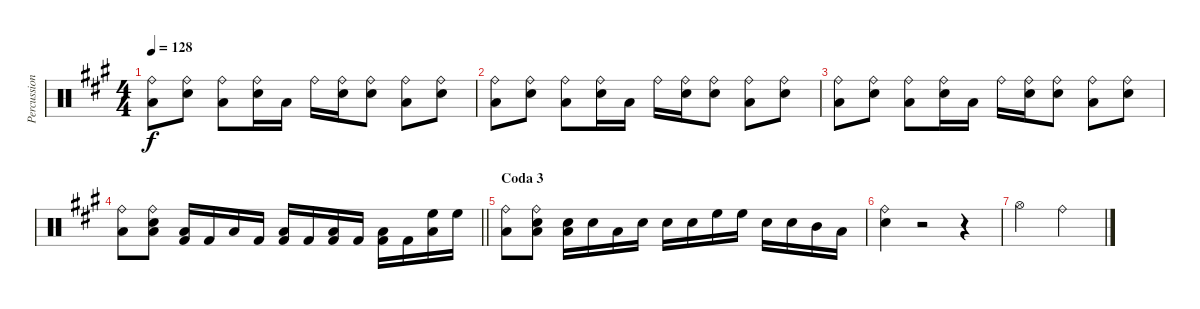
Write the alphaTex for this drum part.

\track ("Percussions" "Percussion") {instrument percussion}
\staff {score}
\articulation defaults
\ts (4 4)
\tempo 128
\clef neutral
\ks a
("Ride (bell)" "Low Floor Tom (hit)").8{dy f} ("Ride (bell)" "Snare (hit) 2").8 ("Ride (bell)" "Low Floor Tom (hit)").8 ("Ride (bell)" "Snare (hit) 2").16 "Low Floor Tom (hit)".16 "Ride (bell)".16 ("Ride (bell)" "Snare (hit) 2").16 ("Ride (bell)" "Snare (hit) 2").8 ("Ride (bell)" "Low Floor Tom (hit)").8 ("Ride (bell)" "Snare (hit) 2").8 |
("Ride (bell)" "Low Floor Tom (hit)").8 ("Ride (bell)" "Snare (hit) 2").8 ("Ride (bell)" "Low Floor Tom (hit)").8 ("Ride (bell)" "Snare (hit) 2").16 "Low Floor Tom (hit)".16 "Ride (bell)".16 ("Ride (bell)" "Snare (hit) 2").16 ("Ride (bell)" "Snare (hit) 2").8 ("Ride (bell)" "Low Floor Tom (hit)").8 ("Ride (bell)" "Snare (hit) 2").8 |
("Ride (bell)" "Low Floor Tom (hit)").8 ("Ride (bell)" "Snare (hit) 2").8 ("Ride (bell)" "Low Floor Tom (hit)").8 ("Ride (bell)" "Snare (hit) 2").16 "Low Floor Tom (hit)".16 "Ride (bell)".16 ("Ride (bell)" "Snare (hit) 2").16 ("Ride (bell)" "Snare (hit) 2").8 ("Ride (bell)" "Low Floor Tom (hit)").8 ("Ride (bell)" "Snare (hit) 2").8 |
\barLineRight lightlight
("Ride (bell)" "Low Floor Tom (hit)").8 ("Ride (bell)" "Snare (hit) 2" "Low Floor Tom (hit)").8 ("Kick (hit) 2" "Low Floor Tom (hit)").16 "Kick (hit) 2".16 "Low Floor Tom (hit)".16 "Kick (hit) 2".16 ("Kick (hit) 2" "Low Floor Tom (hit)").16 "Kick (hit) 2".16 ("Low Floor Tom (hit)" "Kick (hit) 2").16 "Kick (hit) 2".16 ("Kick (hit) 2" "Low Floor Tom (hit)").16 "Kick (hit) 2".16 ("High Floor Tom (hit)" "Low Floor Tom (hit)").16 "High Floor Tom (hit)".16 |
\section ("" "Coda 3")
("Ride (bell)" "Low Floor Tom (hit)").8 ("Ride (bell)" "Snare (hit) 2" "Low Floor Tom (hit)").8 ("Snare (hit) 2" "Low Floor Tom (hit)").16 "Snare (hit) 2".16 "Low Floor Tom (hit)".16 "Snare (hit) 2".16 "Snare (hit) 2".16 "Snare (hit) 2".16 "High Floor Tom (hit)".16 "High Floor Tom (hit)".16 "Snare (hit) 2".16 "Snare (hit) 2".16 "Mid Tom (hit)".16 "Low Floor Tom (hit)".16 |
("Ride (bell)" "Snare (hit) 2").4 r.2 r.4 |
"Hi-Hat (open)".2 "Ride (bell)".2
